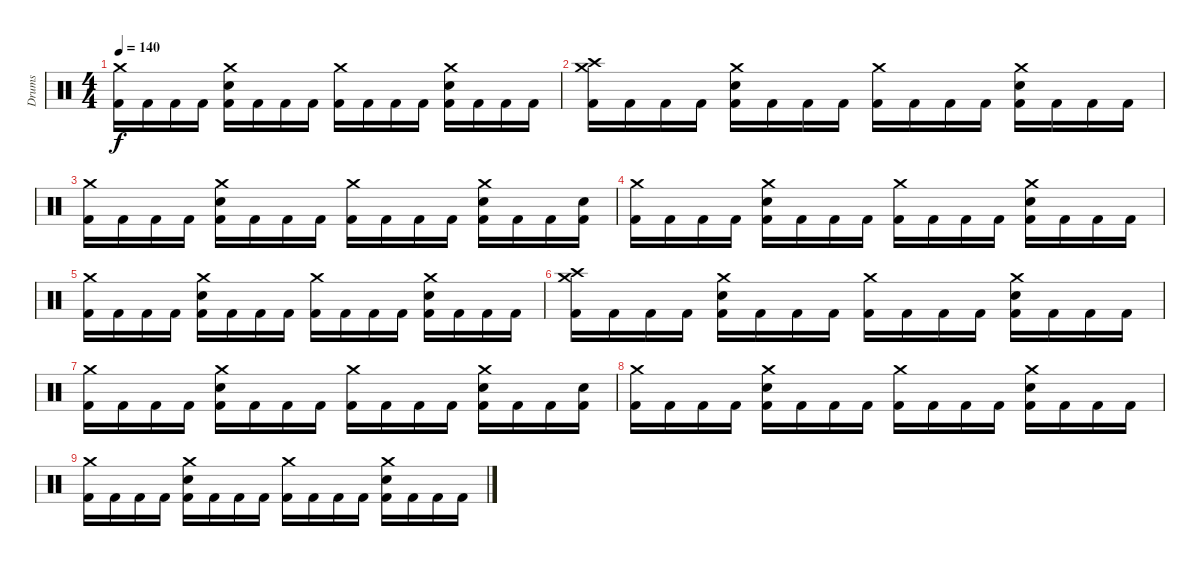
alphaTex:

\track ("Drums" "Drums") {instrument percussion}
\staff {score}
\articulation defaults
\ts (4 4)
\tempo 140
\clef neutral
\ks c
("Crash medium (hit)" "Kick (hit) 2").16{dy f} "Kick (hit) 2".16 "Kick (hit) 2".16 "Kick (hit) 2".16 ("Crash medium (hit)" "Electric Snare (hit)" "Kick (hit) 2").16 "Kick (hit) 2".16 "Kick (hit) 2".16 "Kick (hit) 2".16 ("Crash medium (hit)" "Kick (hit) 2").16 "Kick (hit) 2".16 "Kick (hit) 2".16 "Kick (hit) 2".16 ("Crash medium (hit)" "Electric Snare (hit)" "Kick (hit) 2").16 "Kick (hit) 2".16 "Kick (hit) 2".16 "Kick (hit) 2".16 |
("Crash medium (hit)" "Crash high (hit)" "Kick (hit) 2").16 "Kick (hit) 2".16 "Kick (hit) 2".16 "Kick (hit) 2".16 ("Crash medium (hit)" "Electric Snare (hit)" "Kick (hit) 2").16 "Kick (hit) 2".16 "Kick (hit) 2".16 "Kick (hit) 2".16 ("Crash medium (hit)" "Kick (hit) 2").16 "Kick (hit) 2".16 "Kick (hit) 2".16 "Kick (hit) 2".16 ("Crash medium (hit)" "Electric Snare (hit)" "Kick (hit) 2").16 "Kick (hit) 2".16 "Kick (hit) 2".16 "Kick (hit) 2".16 |
("Crash medium (hit)" "Kick (hit) 2").16 "Kick (hit) 2".16 "Kick (hit) 2".16 "Kick (hit) 2".16 ("Crash medium (hit)" "Electric Snare (hit)" "Kick (hit) 2").16 "Kick (hit) 2".16 "Kick (hit) 2".16 "Kick (hit) 2".16 ("Crash medium (hit)" "Kick (hit) 2").16 "Kick (hit) 2".16 "Kick (hit) 2".16 "Kick (hit) 2".16 ("Crash medium (hit)" "Electric Snare (hit)" "Kick (hit) 2").16 "Kick (hit) 2".16 "Kick (hit) 2".16 ("Electric Snare (hit)" "Kick (hit) 2").16 |
("Crash medium (hit)" "Kick (hit) 2").16 "Kick (hit) 2".16 "Kick (hit) 2".16 "Kick (hit) 2".16 ("Crash medium (hit)" "Electric Snare (hit)" "Kick (hit) 2").16 "Kick (hit) 2".16 "Kick (hit) 2".16 "Kick (hit) 2".16 ("Crash medium (hit)" "Kick (hit) 2").16 "Kick (hit) 2".16 "Kick (hit) 2".16 "Kick (hit) 2".16 ("Crash medium (hit)" "Electric Snare (hit)" "Kick (hit) 2").16 "Kick (hit) 2".16 "Kick (hit) 2".16 "Kick (hit) 2".16 |
("Crash medium (hit)" "Kick (hit) 2").16 "Kick (hit) 2".16 "Kick (hit) 2".16 "Kick (hit) 2".16 ("Crash medium (hit)" "Electric Snare (hit)" "Kick (hit) 2").16 "Kick (hit) 2".16 "Kick (hit) 2".16 "Kick (hit) 2".16 ("Crash medium (hit)" "Kick (hit) 2").16 "Kick (hit) 2".16 "Kick (hit) 2".16 "Kick (hit) 2".16 ("Crash medium (hit)" "Electric Snare (hit)" "Kick (hit) 2").16 "Kick (hit) 2".16 "Kick (hit) 2".16 "Kick (hit) 2".16 |
("Crash medium (hit)" "Crash high (hit)" "Kick (hit) 2").16{volume 0} "Kick (hit) 2".16 "Kick (hit) 2".16 "Kick (hit) 2".16 ("Crash medium (hit)" "Electric Snare (hit)" "Kick (hit) 2").16 "Kick (hit) 2".16 "Kick (hit) 2".16 "Kick (hit) 2".16 ("Crash medium (hit)" "Kick (hit) 2").16 "Kick (hit) 2".16 "Kick (hit) 2".16 "Kick (hit) 2".16 ("Crash medium (hit)" "Electric Snare (hit)" "Kick (hit) 2").16 "Kick (hit) 2".16 "Kick (hit) 2".16 "Kick (hit) 2".16 |
("Crash medium (hit)" "Kick (hit) 2").16 "Kick (hit) 2".16 "Kick (hit) 2".16 "Kick (hit) 2".16 ("Crash medium (hit)" "Electric Snare (hit)" "Kick (hit) 2").16 "Kick (hit) 2".16 "Kick (hit) 2".16 "Kick (hit) 2".16 ("Crash medium (hit)" "Kick (hit) 2").16 "Kick (hit) 2".16 "Kick (hit) 2".16 "Kick (hit) 2".16 ("Crash medium (hit)" "Electric Snare (hit)" "Kick (hit) 2").16 "Kick (hit) 2".16 "Kick (hit) 2".16 ("Electric Snare (hit)" "Kick (hit) 2").16 |
("Crash medium (hit)" "Kick (hit) 2").16 "Kick (hit) 2".16 "Kick (hit) 2".16 "Kick (hit) 2".16 ("Crash medium (hit)" "Electric Snare (hit)" "Kick (hit) 2").16 "Kick (hit) 2".16 "Kick (hit) 2".16 "Kick (hit) 2".16 ("Crash medium (hit)" "Kick (hit) 2").16 "Kick (hit) 2".16 "Kick (hit) 2".16 "Kick (hit) 2".16 ("Crash medium (hit)" "Electric Snare (hit)" "Kick (hit) 2").16 "Kick (hit) 2".16 "Kick (hit) 2".16 "Kick (hit) 2".16 |
("Crash medium (hit)" "Kick (hit) 2").16 "Kick (hit) 2".16 "Kick (hit) 2".16 "Kick (hit) 2".16 ("Crash medium (hit)" "Electric Snare (hit)" "Kick (hit) 2").16 "Kick (hit) 2".16 "Kick (hit) 2".16 "Kick (hit) 2".16 ("Crash medium (hit)" "Kick (hit) 2").16 "Kick (hit) 2".16 "Kick (hit) 2".16 "Kick (hit) 2".16 ("Crash medium (hit)" "Electric Snare (hit)" "Kick (hit) 2").16 "Kick (hit) 2".16 "Kick (hit) 2".16 "Kick (hit) 2".16
